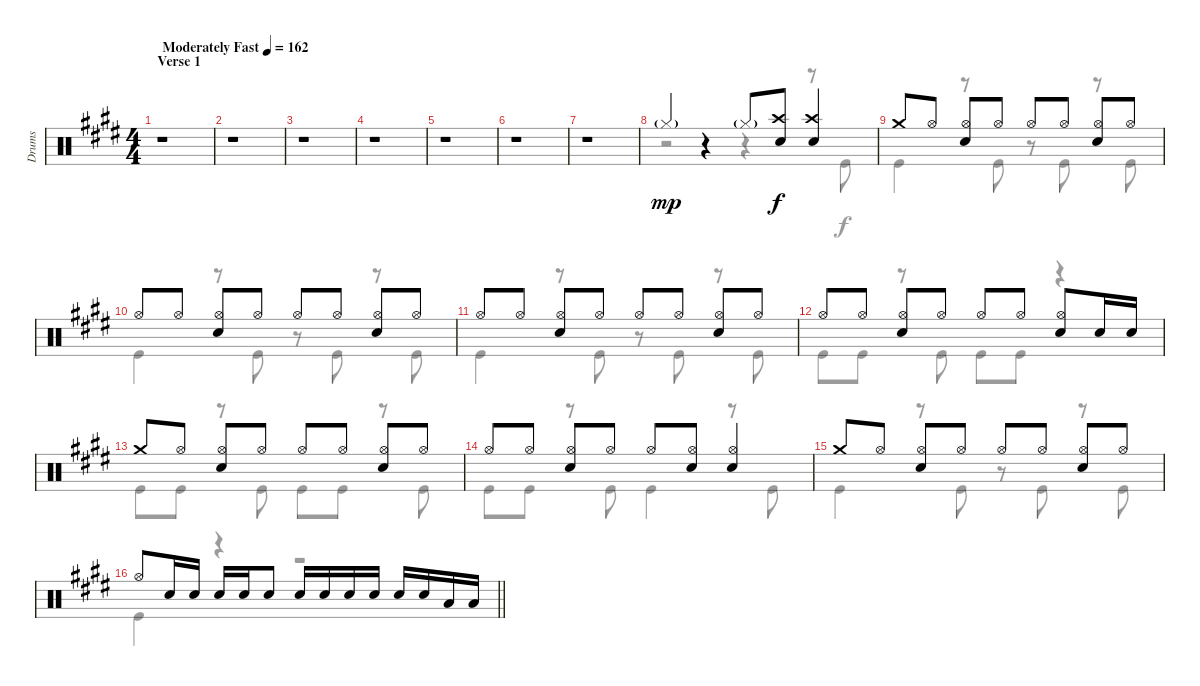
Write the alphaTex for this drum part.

\track ("Drums" "Drums") {instrument percussion}
\staff {score}
\articulation defaults
\voice
\ts (4 4)
\section ("" "Verse 1")
\tempo (162 "Moderately Fast")
\clef neutral
\ks e
r.1{dy mp} |
r.1 |
r.1 |
r.1 |
r.1 |
r.1 |
r.1 |
"Hi-Hat (closed)"{g}.4 r.4 "Hi-Hat (closed)"{g}.8 ("Crash high (hit)" "Electric Snare (hit)").8{dy f} ("Crash high (hit)" "Electric Snare (hit)").4 |
"Crash medium (hit)".8 "Hi-Hat (open)".8 ("Hi-Hat (open)" "Electric Snare (hit)").8 "Hi-Hat (open)".8 "Hi-Hat (open)".8 "Hi-Hat (open)".8 ("Hi-Hat (open)" "Electric Snare (hit)").8 "Hi-Hat (open)".8 |
"Hi-Hat (open)".8 "Hi-Hat (open)".8 ("Hi-Hat (open)" "Electric Snare (hit)").8 "Hi-Hat (open)".8 "Hi-Hat (open)".8 "Hi-Hat (open)".8 ("Hi-Hat (open)" "Electric Snare (hit)").8 "Hi-Hat (open)".8 |
"Hi-Hat (open)".8 "Hi-Hat (open)".8 ("Hi-Hat (open)" "Electric Snare (hit)").8 "Hi-Hat (open)".8 "Hi-Hat (open)".8 "Hi-Hat (open)".8 ("Hi-Hat (open)" "Electric Snare (hit)").8 "Hi-Hat (open)".8 |
"Hi-Hat (open)".8 "Hi-Hat (open)".8 ("Hi-Hat (open)" "Electric Snare (hit)").8 "Hi-Hat (open)".8 "Hi-Hat (open)".8 "Hi-Hat (open)".8 ("Hi-Hat (open)" "Electric Snare (hit)").8 "Electric Snare (hit)".16 "Electric Snare (hit)".16 |
"Crash medium (hit)".8 "Hi-Hat (open)".8 ("Hi-Hat (open)" "Electric Snare (hit)").8 "Hi-Hat (open)".8 "Hi-Hat (open)".8 "Hi-Hat (open)".8 ("Hi-Hat (open)" "Electric Snare (hit)").8 "Hi-Hat (open)".8 |
"Hi-Hat (open)".8 "Hi-Hat (open)".8 ("Hi-Hat (open)" "Electric Snare (hit)").8 "Hi-Hat (open)".8 "Hi-Hat (open)".8 ("Hi-Hat (open)" "Electric Snare (hit)").8 ("Hi-Hat (open)" "Electric Snare (hit)").4 |
"Crash medium (hit)".8 "Hi-Hat (open)".8 ("Hi-Hat (open)" "Electric Snare (hit)").8 "Hi-Hat (open)".8 "Hi-Hat (open)".8 "Hi-Hat (open)".8 ("Hi-Hat (open)" "Electric Snare (hit)").8 "Hi-Hat (open)".8 |
\barLineRight lightlight "Hi-Hat (open)".8 "Electric Snare (hit)".16 "Electric Snare (hit)".16 "Electric Snare (hit)".16 "Electric Snare (hit)".16 "Electric Snare (hit)".8 "Electric Snare (hit)".16 "Electric Snare (hit)".16 "Electric Snare (hit)".16 "Electric Snare (hit)".16 "Electric Snare (hit)".16 "Electric Snare (hit)".16 "Low Tom (hit)".16 "Low Tom (hit)".16
\voice
\clef neutral
\ottava regular
\simile none
\ks e
r.1{dy f} |
r.1 |
r.1 |
r.1 |
r.1 |
r.1 |
r.1 |
r.2 r.4 r.8 "Kick (hit)".8 |
"Kick (hit)".4 r.8 "Kick (hit)".8 r.8 "Kick (hit)".8 r.8 "Kick (hit)".8 |
"Kick (hit)".4 r.8 "Kick (hit)".8 r.8 "Kick (hit)".8 r.8 "Kick (hit)".8 |
"Kick (hit)".4 r.8 "Kick (hit)".8 r.8 "Kick (hit)".8 r.8 "Kick (hit)".8 |
"Kick (hit)".8 "Kick (hit)".8 r.8 "Kick (hit)".8 "Kick (hit)".8 "Kick (hit)".8 r.4 |
"Kick (hit)".8 "Kick (hit)".8 r.8 "Kick (hit)".8 "Kick (hit)".8 "Kick (hit)".8 r.8 "Kick (hit)".8 |
"Kick (hit)".8 "Kick (hit)".8 r.8 "Kick (hit)".8 "Kick (hit)".4 r.8 "Kick (hit)".8 |
"Kick (hit)".4 r.8 "Kick (hit)".8 r.8 "Kick (hit)".8 r.8 "Kick (hit)".8 |
\barLineRight lightlight "Kick (hit)".4
r.4 r.2
